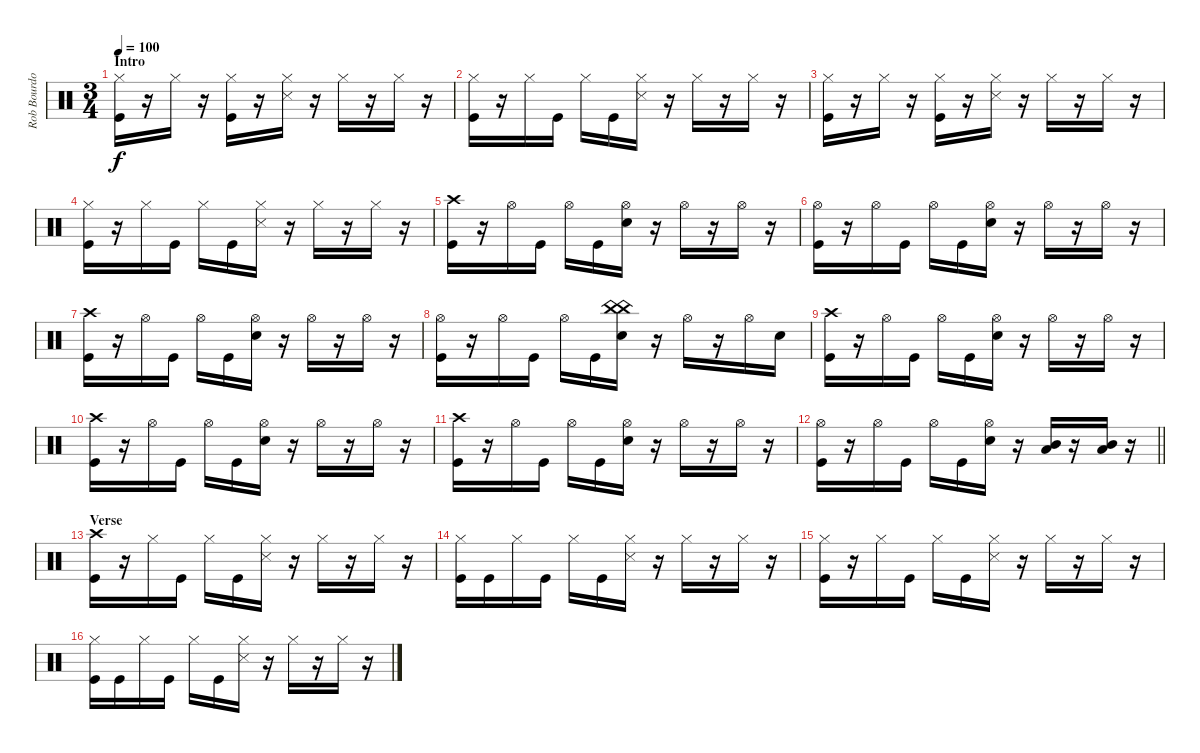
\track ("Rob Bourdon" "Rob Bourdo") {instrument percussion}
\staff {score}
\articulation defaults
\ts (3 4)
\section ("" "Intro")
\tempo 100
\clef neutral
\ks c
("Hi-Hat (closed)" "Kick (hit)").16{dy f} r.16 "Hi-Hat (closed)".16 r.16 ("Hi-Hat (closed)" "Kick (hit)").16 r.16 ("Hi-Hat (closed)" "Snare (side stick) 3").16 r.16 "Hi-Hat (closed)".16 r.16 "Hi-Hat (closed)".16 r.16 |
("Hi-Hat (closed)" "Kick (hit)").16 r.16 "Hi-Hat (closed)".16 "Kick (hit)".16 "Hi-Hat (closed)".16 "Kick (hit)".16 ("Hi-Hat (closed)" "Snare (side stick) 3").16 r.16 "Hi-Hat (closed)".16 r.16 "Hi-Hat (closed)".16 r.16 |
("Hi-Hat (closed)" "Kick (hit)").16 r.16 "Hi-Hat (closed)".16 r.16 ("Hi-Hat (closed)" "Kick (hit)").16 r.16 ("Hi-Hat (closed)" "Snare (side stick) 3").16 r.16 "Hi-Hat (closed)".16 r.16 "Hi-Hat (closed)".16 r.16 |
("Hi-Hat (closed)" "Kick (hit)").16 r.16 "Hi-Hat (closed)".16 "Kick (hit)".16 "Hi-Hat (closed)".16 "Kick (hit)".16 ("Hi-Hat (closed)" "Snare (side stick) 3").16 r.16 "Hi-Hat (closed)".16 r.16 "Hi-Hat (closed)".16 r.16 |
("Crash high (hit)" "Kick (hit)").16 r.16 "Hi-Hat (open)".16 "Kick (hit)".16 "Hi-Hat (open)".16 "Kick (hit)".16 ("Hi-Hat (open)" "Snare (hit) 2").16 r.16 "Hi-Hat (open)".16 r.16 "Hi-Hat (open)".16 r.16 |
("Hi-Hat (open)" "Kick (hit)").16 r.16 "Hi-Hat (open)".16 "Kick (hit)".16 "Hi-Hat (open)".16 "Kick (hit)".16 ("Hi-Hat (open)" "Snare (hit) 2").16 r.16 "Hi-Hat (open)".16 r.16 "Hi-Hat (open)".16 r.16 |
("Crash high (hit)" "Kick (hit)").16 r.16 "Hi-Hat (open)".16 "Kick (hit)".16 "Hi-Hat (open)".16 "Kick (hit)".16 ("Hi-Hat (open)" "Snare (hit) 2").16 r.16 "Hi-Hat (open)".16 r.16 "Hi-Hat (open)".16 r.16 |
("Hi-Hat (open)" "Kick (hit)").16 r.16 "Hi-Hat (open)".16 "Kick (hit)".16 "Hi-Hat (open)".16 "Kick (hit)".16 ("China (hit)" "China (hit)" "Snare (hit) 2").16 r.16 "Hi-Hat (open)".16 r.16 "Hi-Hat (open)".16 "Snare (hit) 2".16 |
("Crash high (hit)" "Kick (hit)").16 r.16 "Hi-Hat (open)".16 "Kick (hit)".16 "Hi-Hat (open)".16 "Kick (hit)".16 ("Hi-Hat (open)" "Snare (hit) 2").16 r.16 "Hi-Hat (open)".16 r.16 "Hi-Hat (open)".16 r.16 |
("Crash high (hit)" "Kick (hit)").16 r.16 "Hi-Hat (open)".16 "Kick (hit)".16 "Hi-Hat (open)".16 "Kick (hit)".16 ("Hi-Hat (open)" "Snare (hit) 2").16 r.16 "Hi-Hat (open)".16 r.16 "Hi-Hat (open)".16 r.16 |
("Crash high (hit)" "Kick (hit)").16 r.16 "Hi-Hat (open)".16 "Kick (hit)".16 "Hi-Hat (open)".16 "Kick (hit)".16 ("Hi-Hat (open)" "Snare (hit) 2").16 r.16 "Hi-Hat (open)".16 r.16 "Hi-Hat (open)".16 r.16 |
\barLineRight lightlight
("Hi-Hat (open)" "Kick (hit)").16 r.16 "Hi-Hat (open)".16 "Kick (hit)".16 "Hi-Hat (open)".16 "Kick (hit)".16 ("Hi-Hat (open)" "Snare (hit) 2").16 r.16 ("Mid Tom (hit)" "Low Tom (hit)").16 r.16 ("Mid Tom (hit)" "Low Tom (hit)").16 r.16 |
\section ("" "Verse")
("Crash high (hit)" "Kick (hit)").16 r.16 "Hi-Hat (closed)".16 "Kick (hit)".16 "Hi-Hat (closed)".16 "Kick (hit)".16 ("Hi-Hat (closed)" "Snare (side stick) 3").16 r.16 "Hi-Hat (closed)".16 r.16 "Hi-Hat (closed)".16 r.16 |
("Hi-Hat (closed)" "Kick (hit)").16 "Kick (hit)".16 "Hi-Hat (closed)".16 "Kick (hit)".16 "Hi-Hat (closed)".16 "Kick (hit)".16 ("Hi-Hat (closed)" "Snare (side stick) 3").16 r.16 "Hi-Hat (closed)".16 r.16 "Hi-Hat (closed)".16 r.16 |
("Hi-Hat (closed)" "Kick (hit)").16 r.16 "Hi-Hat (closed)".16 "Kick (hit)".16 "Hi-Hat (closed)".16 "Kick (hit)".16 ("Hi-Hat (closed)" "Snare (side stick) 3").16 r.16 "Hi-Hat (closed)".16 r.16 "Hi-Hat (closed)".16 r.16 |
("Hi-Hat (closed)" "Kick (hit)").16 "Kick (hit)".16 "Hi-Hat (closed)".16 "Kick (hit)".16 "Hi-Hat (closed)".16 "Kick (hit)".16 ("Hi-Hat (closed)" "Snare (side stick) 3").16 r.16 "Hi-Hat (closed)".16 r.16 "Hi-Hat (closed)".16 r.16
